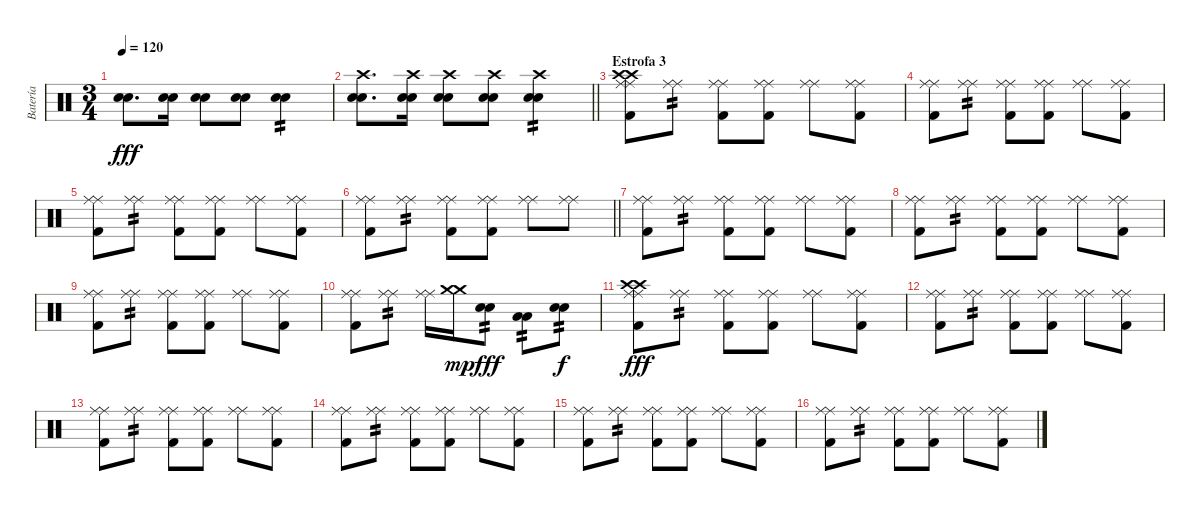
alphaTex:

\track ("Batería" "Batería") {instrument percussion}
\staff {score}
\articulation defaults
\ts (3 4)
\tempo 120
\clef neutral
\ks c
("Electric Snare (hit)" "Electric Snare (hit)").8{d dy fff} ("Electric Snare (hit)" "Electric Snare (hit)").16 ("Electric Snare (hit)" "Electric Snare (hit)").8 ("Electric Snare (hit)" "Electric Snare (hit)").8 ("Electric Snare (hit)" "Electric Snare (hit)").4{tp 2} |
\barLineRight lightlight
("Crash high (hit)" "Electric Snare (hit)" "Electric Snare (hit)").8{d} ("Crash high (hit)" "Electric Snare (hit)" "Electric Snare (hit)").16 ("Crash high (hit)" "Electric Snare (hit)" "Electric Snare (hit)").8 ("Crash high (hit)" "Electric Snare (hit)" "Electric Snare (hit)").8 ("Crash high (hit)" "Electric Snare (hit)" "Electric Snare (hit)").4{tp 2} |
\section ("" "Estrofa 3")
("Ride (middle)" "Ride (middle)" "Crash high (hit)" "Crash high (hit)" "Kick (hit) 2").8 ("Ride (middle)" "Ride (middle)").8{tp 2} ("Ride (middle)" "Ride (middle)" "Kick (hit) 2").8 ("Ride (middle)" "Ride (middle)" "Kick (hit) 2").8 ("Ride (middle)" "Ride (middle)").8 ("Ride (middle)" "Ride (middle)" "Kick (hit) 2").8 |
("Ride (middle)" "Ride (middle)" "Kick (hit) 2").8 ("Ride (middle)" "Ride (middle)").8{tp 2} ("Ride (middle)" "Ride (middle)" "Kick (hit) 2").8 ("Ride (middle)" "Ride (middle)" "Kick (hit) 2").8 ("Ride (middle)" "Ride (middle)").8 ("Ride (middle)" "Ride (middle)" "Kick (hit) 2").8 |
("Ride (middle)" "Ride (middle)" "Kick (hit) 2").8 ("Ride (middle)" "Ride (middle)").8{tp 2} ("Ride (middle)" "Ride (middle)" "Kick (hit) 2").8 ("Ride (middle)" "Ride (middle)" "Kick (hit) 2").8 ("Ride (middle)" "Ride (middle)").8 ("Ride (middle)" "Ride (middle)" "Kick (hit) 2").8 |
\barLineRight lightlight
("Ride (middle)" "Ride (middle)" "Kick (hit) 2").8 ("Ride (middle)" "Ride (middle)").8{tp 2} ("Ride (middle)" "Ride (middle)" "Kick (hit) 2").8 ("Ride (middle)" "Ride (middle)" "Kick (hit) 2").8 ("Ride (middle)" "Ride (middle)").8 ("Ride (middle)" "Ride (middle)").8 |
("Ride (middle)" "Ride (middle)" "Kick (hit) 2").8 ("Ride (middle)" "Ride (middle)").8{tp 2} ("Ride (middle)" "Ride (middle)" "Kick (hit) 2").8 ("Ride (middle)" "Ride (middle)" "Kick (hit) 2").8 ("Ride (middle)" "Ride (middle)").8 ("Ride (middle)" "Ride (middle)" "Kick (hit) 2").8 |
("Ride (middle)" "Ride (middle)" "Kick (hit) 2").8 ("Ride (middle)" "Ride (middle)").8{tp 2} ("Ride (middle)" "Ride (middle)" "Kick (hit) 2").8 ("Ride (middle)" "Ride (middle)" "Kick (hit) 2").8 ("Ride (middle)" "Ride (middle)").8 ("Ride (middle)" "Ride (middle)" "Kick (hit) 2").8 |
("Ride (middle)" "Ride (middle)" "Kick (hit) 2").8 ("Ride (middle)" "Ride (middle)").8{tp 2} ("Ride (middle)" "Ride (middle)" "Kick (hit) 2").8 ("Ride (middle)" "Ride (middle)" "Kick (hit) 2").8 ("Ride (middle)" "Ride (middle)").8 ("Ride (middle)" "Ride (middle)" "Kick (hit) 2").8 |
("Ride (middle)" "Ride (middle)" "Kick (hit) 2").8 ("Ride (middle)" "Ride (middle)").8{tp 2} ("Ride (middle)" "Ride (middle)").16 ("Crash medium (hit)" "Crash medium (hit)").16{dy mp} ("Electric Snare (hit)" "Electric Snare (hit)").8{tp 2 dy fff} ("Low Tom (hit)" "Low Tom (hit)").8{tp 2} ("Electric Snare (hit)" "Electric Snare (hit)").8{tp 2 dy f} |
("Ride (middle)" "Ride (middle)" "Crash high (hit)" "Crash high (hit)" "Kick (hit) 2").8{dy fff} ("Ride (middle)" "Ride (middle)").8{tp 2} ("Ride (middle)" "Ride (middle)" "Kick (hit) 2").8 ("Ride (middle)" "Ride (middle)" "Kick (hit) 2").8 ("Ride (middle)" "Ride (middle)").8 ("Ride (middle)" "Ride (middle)" "Kick (hit) 2").8 |
("Ride (middle)" "Ride (middle)" "Kick (hit) 2").8 ("Ride (middle)" "Ride (middle)").8{tp 2} ("Ride (middle)" "Ride (middle)" "Kick (hit) 2").8 ("Ride (middle)" "Ride (middle)" "Kick (hit) 2").8 ("Ride (middle)" "Ride (middle)").8 ("Ride (middle)" "Ride (middle)" "Kick (hit) 2").8 |
("Ride (middle)" "Ride (middle)" "Kick (hit) 2").8 ("Ride (middle)" "Ride (middle)").8{tp 2} ("Ride (middle)" "Ride (middle)" "Kick (hit) 2").8 ("Ride (middle)" "Ride (middle)" "Kick (hit) 2").8 ("Ride (middle)" "Ride (middle)").8 ("Ride (middle)" "Ride (middle)" "Kick (hit) 2").8 |
("Ride (middle)" "Ride (middle)" "Kick (hit) 2").8 ("Ride (middle)" "Ride (middle)").8{tp 2} ("Ride (middle)" "Ride (middle)" "Kick (hit) 2").8 ("Ride (middle)" "Ride (middle)" "Kick (hit) 2").8 ("Ride (middle)" "Ride (middle)").8 ("Ride (middle)" "Ride (middle)" "Kick (hit) 2").8 |
("Ride (middle)" "Ride (middle)" "Kick (hit) 2").8 ("Ride (middle)" "Ride (middle)").8{tp 2} ("Ride (middle)" "Ride (middle)" "Kick (hit) 2").8 ("Ride (middle)" "Ride (middle)" "Kick (hit) 2").8 ("Ride (middle)" "Ride (middle)").8 ("Ride (middle)" "Ride (middle)" "Kick (hit) 2").8 |
("Ride (middle)" "Ride (middle)" "Kick (hit) 2").8 ("Ride (middle)" "Ride (middle)").8{tp 2} ("Ride (middle)" "Ride (middle)" "Kick (hit) 2").8 ("Ride (middle)" "Ride (middle)" "Kick (hit) 2").8 ("Ride (middle)" "Ride (middle)").8 ("Ride (middle)" "Ride (middle)" "Kick (hit) 2").8
